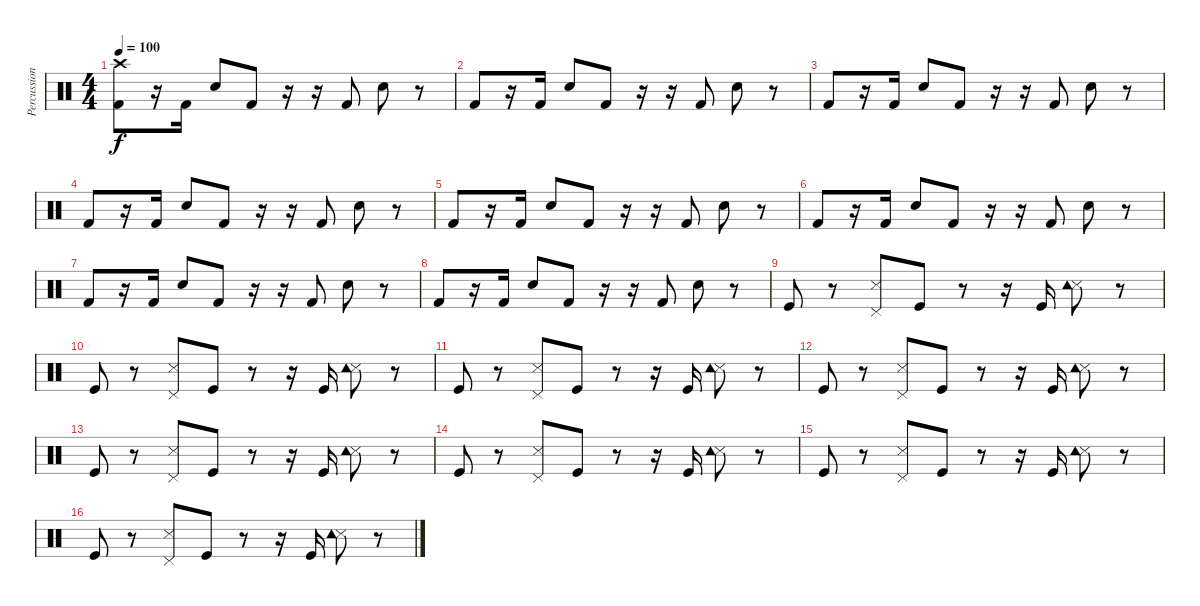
\track ("Percussions" "Percussion") {instrument percussion}
\staff {score}
\articulation defaults
\ts (4 4)
\tempo 100
\clef neutral
\ks c
("Crash high (hit)" "Kick (hit) 2").8{dy f} r.16 "Kick (hit) 2".16 "Snare (hit) 2".8 "Kick (hit) 2".8 r.16 r.16 "Kick (hit) 2".8 "Snare (hit) 2".8 r.8 |
"Kick (hit) 2".8 r.16 "Kick (hit) 2".16 "Snare (hit) 2".8 "Kick (hit) 2".8 r.16 r.16 "Kick (hit) 2".8 "Snare (hit) 2".8 r.8 |
"Kick (hit) 2".8 r.16 "Kick (hit) 2".16 "Snare (hit) 2".8 "Kick (hit) 2".8 r.16 r.16 "Kick (hit) 2".8 "Snare (hit) 2".8 r.8 |
"Kick (hit) 2".8 r.16 "Kick (hit) 2".16 "Snare (hit) 2".8 "Kick (hit) 2".8 r.16 r.16 "Kick (hit) 2".8 "Snare (hit) 2".8 r.8 |
"Kick (hit) 2".8 r.16 "Kick (hit) 2".16 "Snare (hit) 2".8 "Kick (hit) 2".8 r.16 r.16 "Kick (hit) 2".8 "Snare (hit) 2".8 r.8 |
"Kick (hit) 2".8 r.16 "Kick (hit) 2".16 "Snare (hit) 2".8 "Kick (hit) 2".8 r.16 r.16 "Kick (hit) 2".8 "Snare (hit) 2".8 r.8 |
"Kick (hit) 2".8 r.16 "Kick (hit) 2".16 "Snare (hit) 2".8 "Kick (hit) 2".8 r.16 r.16 "Kick (hit) 2".8 "Snare (hit) 2".8 r.8 |
"Kick (hit) 2".8 r.16 "Kick (hit) 2".16 "Snare (hit) 2".8 "Kick (hit) 2".8 r.16 r.16 "Kick (hit) 2".8 "Snare (hit) 2".8 r.8 |
"Kick (hit)".8 r.8 ("Pedal Hi-Hat (hit)" "Snare (side stick) 3").8 "Kick (hit)".8 r.8 r.16 "Kick (hit)".16 ("Snare (side stick) 3" "Tambourine (hit)").8 r.8 |
"Kick (hit)".8 r.8 ("Pedal Hi-Hat (hit)" "Snare (side stick) 3").8 "Kick (hit)".8 r.8 r.16 "Kick (hit)".16 ("Snare (side stick) 3" "Tambourine (hit)").8 r.8 |
"Kick (hit)".8 r.8 ("Pedal Hi-Hat (hit)" "Snare (side stick) 3").8 "Kick (hit)".8 r.8 r.16 "Kick (hit)".16 ("Snare (side stick) 3" "Tambourine (hit)").8 r.8 |
"Kick (hit)".8 r.8 ("Pedal Hi-Hat (hit)" "Snare (side stick) 3").8 "Kick (hit)".8 r.8 r.16 "Kick (hit)".16 ("Snare (side stick) 3" "Tambourine (hit)").8 r.8 |
"Kick (hit)".8 r.8 ("Pedal Hi-Hat (hit)" "Snare (side stick) 3").8 "Kick (hit)".8 r.8 r.16 "Kick (hit)".16 ("Snare (side stick) 3" "Tambourine (hit)").8 r.8 |
"Kick (hit)".8 r.8 ("Pedal Hi-Hat (hit)" "Snare (side stick) 3").8 "Kick (hit)".8 r.8 r.16 "Kick (hit)".16 ("Snare (side stick) 3" "Tambourine (hit)").8 r.8 |
"Kick (hit)".8 r.8 ("Pedal Hi-Hat (hit)" "Snare (side stick) 3").8 "Kick (hit)".8 r.8 r.16 "Kick (hit)".16 ("Snare (side stick) 3" "Tambourine (hit)").8 r.8 |
"Kick (hit)".8 r.8 ("Pedal Hi-Hat (hit)" "Snare (side stick) 3").8 "Kick (hit)".8 r.8 r.16 "Kick (hit)".16 ("Snare (side stick) 3" "Tambourine (hit)").8 r.8
